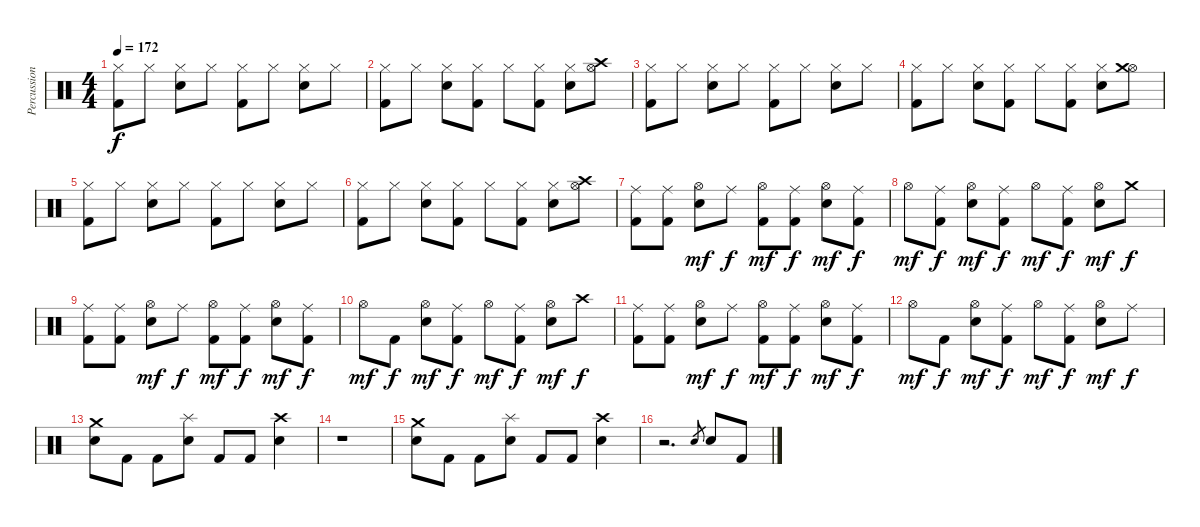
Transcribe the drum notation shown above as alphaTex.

\track ("Percussions" "Percussion") {instrument percussion}
\staff {score}
\articulation defaults
\ts (4 4)
\tempo 172
\clef neutral
\ks c
("Hi-Hat (closed)" "Kick (hit) 2").8{dy f} "Hi-Hat (closed)".8 ("Hi-Hat (closed)" "Electric Snare (hit)").8 "Hi-Hat (closed)".8 ("Hi-Hat (closed)" "Kick (hit) 2").8 "Hi-Hat (closed)".8 ("Hi-Hat (closed)" "Electric Snare (hit)").8 "Hi-Hat (closed)".8 |
("Hi-Hat (closed)" "Kick (hit) 2").8 "Hi-Hat (closed)".8 ("Hi-Hat (closed)" "Electric Snare (hit)").8 ("Hi-Hat (closed)" "Kick (hit) 2").8 "Hi-Hat (closed)".8 ("Hi-Hat (closed)" "Kick (hit) 2").8 ("Hi-Hat (closed)" "Electric Snare (hit)").8 ("Hi-Hat (open)" "Crash high (hit)").8 |
("Hi-Hat (closed)" "Kick (hit) 2").8 "Hi-Hat (closed)".8 ("Hi-Hat (closed)" "Electric Snare (hit)").8 "Hi-Hat (closed)".8 ("Hi-Hat (closed)" "Kick (hit) 2").8 "Hi-Hat (closed)".8 ("Hi-Hat (closed)" "Electric Snare (hit)").8 "Hi-Hat (closed)".8 |
("Hi-Hat (closed)" "Kick (hit) 2").8 "Hi-Hat (closed)".8 ("Hi-Hat (closed)" "Electric Snare (hit)").8 ("Hi-Hat (closed)" "Kick (hit) 2").8 "Hi-Hat (closed)".8 ("Hi-Hat (closed)" "Kick (hit) 2").8 ("Hi-Hat (closed)" "Electric Snare (hit)").8 ("Hi-Hat (open)" "Crash medium (hit)").8 |
("Hi-Hat (closed)" "Kick (hit) 2").8 "Hi-Hat (closed)".8 ("Hi-Hat (closed)" "Electric Snare (hit)").8 "Hi-Hat (closed)".8 ("Hi-Hat (closed)" "Kick (hit) 2").8 "Hi-Hat (closed)".8 ("Hi-Hat (closed)" "Electric Snare (hit)").8 "Hi-Hat (closed)".8 |
("Hi-Hat (closed)" "Kick (hit) 2").8 "Hi-Hat (closed)".8 ("Hi-Hat (closed)" "Electric Snare (hit)").8 ("Hi-Hat (closed)" "Kick (hit) 2").8 "Hi-Hat (closed)".8 ("Hi-Hat (closed)" "Kick (hit) 2").8 ("Hi-Hat (closed)" "Electric Snare (hit)").8 ("Hi-Hat (open)" "Crash high (hit)").8 |
("Ride (middle)" "Kick (hit) 2").8 ("Ride (middle)" "Kick (hit) 2").8 ("Hi-Hat (open)" "Electric Snare (hit)").8{dy mf} "Ride (middle)".8{dy f} ("Hi-Hat (open)" "Kick (hit) 2").8{dy mf} ("Ride (middle)" "Kick (hit) 2").8{dy f} ("Hi-Hat (open)" "Electric Snare (hit)").8{dy mf} ("Ride (middle)" "Kick (hit) 2").8{dy f} |
"Hi-Hat (open)".8{dy mf} ("Ride (middle)" "Kick (hit) 2").8{dy f} ("Hi-Hat (open)" "Electric Snare (hit)").8{dy mf} ("Ride (middle)" "Kick (hit) 2").8{dy f} "Hi-Hat (open)".8{dy mf} ("Ride (middle)" "Kick (hit) 2").8{dy f} ("Hi-Hat (open)" "Electric Snare (hit)").8{dy mf} "Crash medium (hit)".8{dy f} |
("Ride (middle)" "Kick (hit) 2").8 ("Ride (middle)" "Kick (hit) 2").8 ("Hi-Hat (open)" "Electric Snare (hit)").8{dy mf} "Ride (middle)".8{dy f} ("Hi-Hat (open)" "Kick (hit) 2").8{dy mf} ("Ride (middle)" "Kick (hit) 2").8{dy f} ("Hi-Hat (open)" "Electric Snare (hit)").8{dy mf} ("Ride (middle)" "Kick (hit) 2").8{dy f} |
"Hi-Hat (open)".8{dy mf} "Kick (hit) 2".8{dy f} ("Hi-Hat (open)" "Electric Snare (hit)").8{dy mf} ("Ride (middle)" "Kick (hit) 2").8{dy f} "Hi-Hat (open)".8{dy mf} ("Ride (middle)" "Kick (hit) 2").8{dy f} ("Hi-Hat (open)" "Electric Snare (hit)").8{dy mf} "Crash high (hit)".8{dy f} |
("Ride (middle)" "Kick (hit) 2").8 ("Ride (middle)" "Kick (hit) 2").8 ("Hi-Hat (open)" "Electric Snare (hit)").8{dy mf} "Ride (middle)".8{dy f} ("Hi-Hat (open)" "Kick (hit) 2").8{dy mf} ("Ride (middle)" "Kick (hit) 2").8{dy f} ("Hi-Hat (open)" "Electric Snare (hit)").8{dy mf} ("Ride (middle)" "Kick (hit) 2").8{dy f} |
"Hi-Hat (open)".8{dy mf} "Kick (hit) 2".8{dy f} ("Hi-Hat (open)" "Electric Snare (hit)").8{dy mf} ("Ride (middle)" "Kick (hit) 2").8{dy f} "Hi-Hat (open)".8{dy mf} ("Ride (middle)" "Kick (hit) 2").8{dy f} ("Hi-Hat (open)" "Electric Snare (hit)").8{dy mf} "Ride (middle)".8{dy f} |
("Crash medium (hit)" "Electric Snare (hit)").8 "Kick (hit) 2".8 "Kick (hit) 2".8 ("Splash (hit)" "Electric Snare (hit)").8 "Kick (hit) 2".8 "Kick (hit) 2".8 ("Crash high (hit)" "Electric Snare (hit)").4 |
r.1 |
("Crash medium (hit)" "Electric Snare (hit)").8 "Kick (hit) 2".8 "Kick (hit) 2".8 ("Splash (hit)" "Electric Snare (hit)").8 "Kick (hit) 2".8 "Kick (hit) 2".8 ("Crash high (hit)" "Electric Snare (hit)").4 |
r.2{d} "Electric Snare (hit)".8{gr} "Electric Snare (hit)".8 "Kick (hit) 2".8
